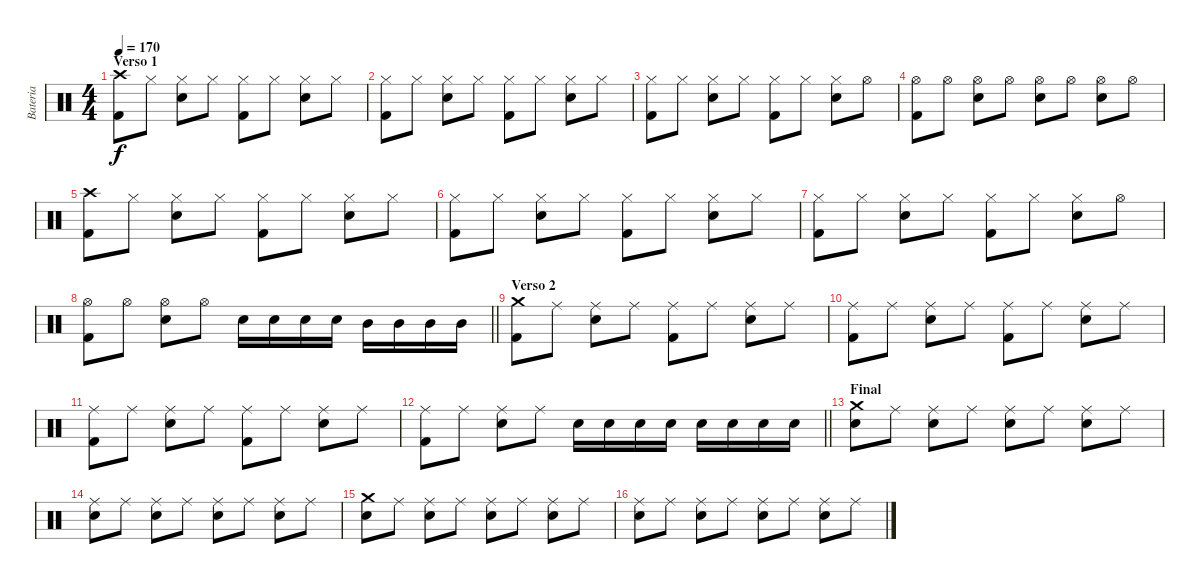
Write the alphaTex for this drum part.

\track ("Bateria" "Bateria") {instrument percussion}
\staff {score}
\articulation defaults
\ts (4 4)
\section ("" "Verso 1")
\tempo 170
\clef neutral
\ks c
("Crash high (hit)" "Kick (hit) 2").8{dy f} "Hi-Hat (closed)".8 ("Hi-Hat (closed)" "Snare (hit) 2").8 "Hi-Hat (closed)".8 ("Hi-Hat (closed)" "Kick (hit) 2").8 "Hi-Hat (closed)".8 ("Hi-Hat (closed)" "Snare (hit) 2").8 "Hi-Hat (closed)".8 |
("Hi-Hat (closed)" "Kick (hit) 2").8 "Hi-Hat (closed)".8 ("Hi-Hat (closed)" "Snare (hit) 2").8 "Hi-Hat (closed)".8 ("Hi-Hat (closed)" "Kick (hit) 2").8 "Hi-Hat (closed)".8 ("Hi-Hat (closed)" "Snare (hit) 2").8 "Hi-Hat (closed)".8 |
("Hi-Hat (closed)" "Kick (hit) 2").8 "Hi-Hat (closed)".8 ("Hi-Hat (closed)" "Snare (hit) 2").8 "Hi-Hat (closed)".8 ("Hi-Hat (closed)" "Kick (hit) 2").8 "Hi-Hat (closed)".8 ("Hi-Hat (closed)" "Snare (hit) 2").8 "Hi-Hat (open)".8 |
("Hi-Hat (open)" "Kick (hit) 2").8 "Hi-Hat (open)".8 ("Hi-Hat (open)" "Snare (hit) 2").8 "Hi-Hat (open)".8 ("Hi-Hat (open)" "Snare (hit) 2").8 "Hi-Hat (open)".8 ("Hi-Hat (open)" "Snare (hit) 2").8 "Hi-Hat (open)".8 |
("Crash high (hit)" "Kick (hit) 2").8 "Hi-Hat (closed)".8 ("Hi-Hat (closed)" "Snare (hit) 2").8 "Hi-Hat (closed)".8 ("Hi-Hat (closed)" "Kick (hit) 2").8 "Hi-Hat (closed)".8 ("Hi-Hat (closed)" "Snare (hit) 2").8 "Hi-Hat (closed)".8 |
("Hi-Hat (closed)" "Kick (hit) 2").8 "Hi-Hat (closed)".8 ("Hi-Hat (closed)" "Snare (hit) 2").8 "Hi-Hat (closed)".8 ("Hi-Hat (closed)" "Kick (hit) 2").8 "Hi-Hat (closed)".8 ("Hi-Hat (closed)" "Snare (hit) 2").8 "Hi-Hat (closed)".8 |
("Hi-Hat (closed)" "Kick (hit) 2").8 "Hi-Hat (closed)".8 ("Hi-Hat (closed)" "Snare (hit) 2").8 "Hi-Hat (closed)".8 ("Hi-Hat (closed)" "Kick (hit) 2").8 "Hi-Hat (closed)".8 ("Hi-Hat (closed)" "Snare (hit) 2").8 "Hi-Hat (open)".8 |
\barLineRight lightlight
("Hi-Hat (open)" "Kick (hit) 2").8 "Hi-Hat (open)".8 ("Hi-Hat (open)" "Snare (hit) 2").8 "Hi-Hat (open)".8 "Snare (hit) 2".16 "Snare (hit) 2".16 "Snare (hit) 2".16 "Snare (hit) 2".16 "Mid Tom (hit)".16 "Mid Tom (hit)".16 "Mid Tom (hit)".16 "Mid Tom (hit)".16 |
\section ("" "Verso 2")
("Crash medium (hit)" "Kick (hit) 2").8 "Ride (middle)".8 ("Ride (middle)" "Snare (hit) 2").8 "Ride (middle)".8 ("Ride (middle)" "Kick (hit) 2").8 "Ride (middle)".8 ("Ride (middle)" "Snare (hit) 2").8 "Ride (middle)".8 |
("Ride (middle)" "Kick (hit) 2").8 "Ride (middle)".8 ("Ride (middle)" "Snare (hit) 2").8 "Ride (middle)".8 ("Ride (middle)" "Kick (hit) 2").8 "Ride (middle)".8 ("Ride (middle)" "Snare (hit) 2").8 "Ride (middle)".8 |
("Ride (middle)" "Kick (hit) 2").8 "Ride (middle)".8 ("Ride (middle)" "Snare (hit) 2").8 "Ride (middle)".8 ("Ride (middle)" "Kick (hit) 2").8 "Ride (middle)".8 ("Ride (middle)" "Snare (hit) 2").8 "Ride (middle)".8 |
\barLineRight lightlight
("Ride (middle)" "Kick (hit) 2").8 "Ride (middle)".8 ("Ride (middle)" "Snare (hit) 2").8 "Ride (middle)".8 "Snare (hit) 2".16 "Snare (hit) 2".16 "Snare (hit) 2".16 "Snare (hit) 2".16 "Snare (hit) 2".16 "Snare (hit) 2".16 "Snare (hit) 2".16 "Snare (hit) 2".16 |
\section ("" "Final")
("Crash medium (hit)" "Snare (hit) 2").8 "Ride (middle)".8 ("Ride (middle)" "Snare (hit) 2").8 "Ride (middle)".8 ("Ride (middle)" "Snare (hit) 2").8 "Ride (middle)".8 ("Ride (middle)" "Snare (hit) 2").8 "Ride (middle)".8 |
("Ride (middle)" "Snare (hit) 2").8 "Ride (middle)".8 ("Ride (middle)" "Snare (hit) 2").8 "Ride (middle)".8 ("Ride (middle)" "Snare (hit) 2").8 "Ride (middle)".8 ("Ride (middle)" "Snare (hit) 2").8 "Ride (middle)".8 |
("Crash medium (hit)" "Snare (hit) 2").8 "Ride (middle)".8 ("Ride (middle)" "Snare (hit) 2").8 "Ride (middle)".8 ("Ride (middle)" "Snare (hit) 2").8 "Ride (middle)".8 ("Ride (middle)" "Snare (hit) 2").8 "Ride (middle)".8 |
("Ride (middle)" "Snare (hit) 2").8 "Ride (middle)".8 ("Ride (middle)" "Snare (hit) 2").8 "Ride (middle)".8 ("Ride (middle)" "Snare (hit) 2").8 "Ride (middle)".8 ("Ride (middle)" "Snare (hit) 2").8 "Ride (middle)".8
